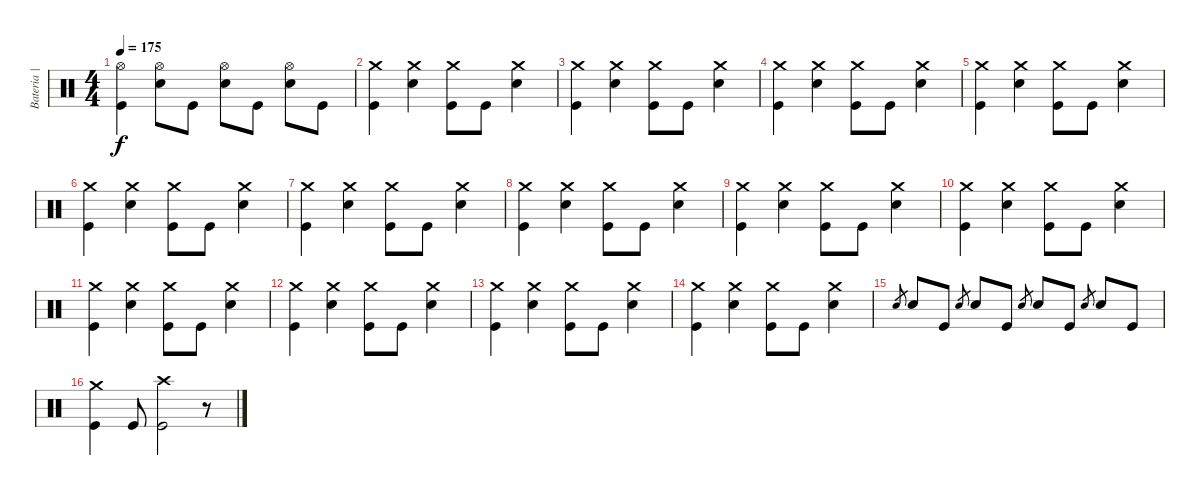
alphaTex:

\track ("Bateria | Fabinho" "Bateria | ") {instrument percussion}
\staff {score}
\articulation defaults
\ts (4 4)
\tempo 175
\clef neutral
\ks c
("Hi-Hat (open)" "Kick (hit)").4{dy f} ("Hi-Hat (open)" "Snare (hit) 2").8 "Kick (hit)".8 ("Hi-Hat (open)" "Snare (hit) 2").8 "Kick (hit)".8 ("Hi-Hat (open)" "Snare (hit) 2").8 "Kick (hit)".8 |
("Crash medium (hit)" "Kick (hit)").4 ("Crash medium (hit)" "Snare (hit) 2").4 ("Crash medium (hit)" "Kick (hit)").8 "Kick (hit)".8 ("Crash medium (hit)" "Snare (hit) 2").4 |
("Crash medium (hit)" "Kick (hit)").4 ("Crash medium (hit)" "Snare (hit) 2").4 ("Crash medium (hit)" "Kick (hit)").8 "Kick (hit)".8 ("Crash medium (hit)" "Snare (hit) 2").4 |
("Crash medium (hit)" "Kick (hit)").4 ("Crash medium (hit)" "Snare (hit) 2").4 ("Crash medium (hit)" "Kick (hit)").8 "Kick (hit)".8 ("Crash medium (hit)" "Snare (hit) 2").4 |
("Crash medium (hit)" "Kick (hit)").4 ("Crash medium (hit)" "Snare (hit) 2").4 ("Crash medium (hit)" "Kick (hit)").8 "Kick (hit)".8 ("Crash medium (hit)" "Snare (hit) 2").4 |
("Crash medium (hit)" "Kick (hit)").4 ("Crash medium (hit)" "Snare (hit) 2").4 ("Crash medium (hit)" "Kick (hit)").8 "Kick (hit)".8 ("Crash medium (hit)" "Snare (hit) 2").4 |
("Crash medium (hit)" "Kick (hit)").4 ("Crash medium (hit)" "Snare (hit) 2").4 ("Crash medium (hit)" "Kick (hit)").8 "Kick (hit)".8 ("Crash medium (hit)" "Snare (hit) 2").4 |
("Crash medium (hit)" "Kick (hit)").4 ("Crash medium (hit)" "Snare (hit) 2").4 ("Crash medium (hit)" "Kick (hit)").8 "Kick (hit)".8 ("Crash medium (hit)" "Snare (hit) 2").4 |
("Crash medium (hit)" "Kick (hit)").4 ("Crash medium (hit)" "Snare (hit) 2").4 ("Crash medium (hit)" "Kick (hit)").8 "Kick (hit)".8 ("Crash medium (hit)" "Snare (hit) 2").4 |
("Crash medium (hit)" "Kick (hit)").4 ("Crash medium (hit)" "Snare (hit) 2").4 ("Crash medium (hit)" "Kick (hit)").8 "Kick (hit)".8 ("Crash medium (hit)" "Snare (hit) 2").4 |
("Crash medium (hit)" "Kick (hit)").4 ("Crash medium (hit)" "Snare (hit) 2").4 ("Crash medium (hit)" "Kick (hit)").8 "Kick (hit)".8 ("Crash medium (hit)" "Snare (hit) 2").4 |
("Crash medium (hit)" "Kick (hit)").4 ("Crash medium (hit)" "Snare (hit) 2").4 ("Crash medium (hit)" "Kick (hit)").8 "Kick (hit)".8 ("Crash medium (hit)" "Snare (hit) 2").4 |
("Crash medium (hit)" "Kick (hit)").4 ("Crash medium (hit)" "Snare (hit) 2").4 ("Crash medium (hit)" "Kick (hit)").8 "Kick (hit)".8 ("Crash medium (hit)" "Snare (hit) 2").4 |
("Crash medium (hit)" "Kick (hit)").4 ("Crash medium (hit)" "Snare (hit) 2").4 ("Crash medium (hit)" "Kick (hit)").8 "Kick (hit)".8 ("Crash medium (hit)" "Snare (hit) 2").4 |
"Snare (hit) 2".8{gr} "Snare (hit) 2".8 "Kick (hit)".8 "Snare (hit) 2".8{gr} "Snare (hit) 2".8 "Kick (hit)".8 "Snare (hit) 2".8{gr} "Snare (hit) 2".8 "Kick (hit)".8 "Snare (hit) 2".8{gr} "Snare (hit) 2".8 "Kick (hit)".8 |
("Crash medium (hit)" "Kick (hit)").4 "Kick (hit)".8 ("Crash high (hit)" "Kick (hit)").2 r.8
